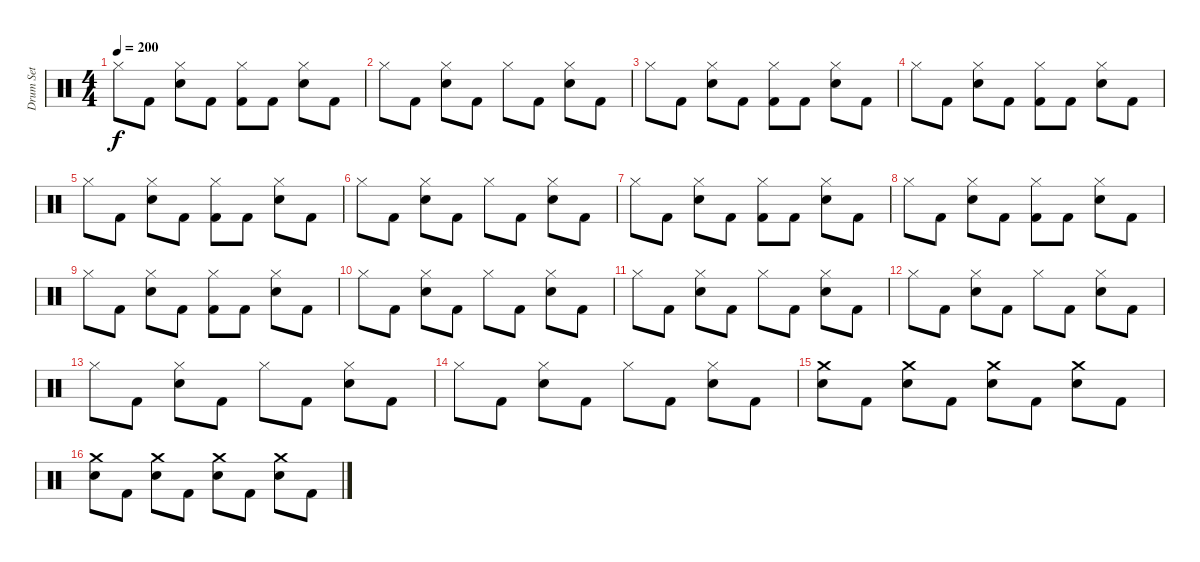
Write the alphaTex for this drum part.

\track ("Drum Set" "Drum Set") {instrument percussion}
\staff {score}
\articulation defaults
\ts (4 4)
\tempo 200
\clef neutral
\ks c "Hi-Hat (closed)".8{dy f} "Kick (hit) 2".8
("Hi-Hat (closed)" "Snare (hit) 2").8 "Kick (hit) 2".8 ("Hi-Hat (closed)" "Kick (hit) 2").8 "Kick (hit) 2".8 ("Hi-Hat (closed)" "Snare (hit) 2").8 "Kick (hit) 2".8 |
"Hi-Hat (closed)".8 "Kick (hit) 2".8 ("Hi-Hat (closed)" "Snare (hit) 2").8 "Kick (hit) 2".8 "Hi-Hat (closed)".8 "Kick (hit) 2".8 ("Hi-Hat (closed)" "Snare (hit) 2").8 "Kick (hit) 2".8 |
"Hi-Hat (closed)".8 "Kick (hit) 2".8 ("Hi-Hat (closed)" "Snare (hit) 2").8 "Kick (hit) 2".8 ("Hi-Hat (closed)" "Kick (hit) 2").8 "Kick (hit) 2".8 ("Hi-Hat (closed)" "Snare (hit) 2").8 "Kick (hit) 2".8 |
"Hi-Hat (closed)".8 "Kick (hit) 2".8 ("Hi-Hat (closed)" "Snare (hit) 2").8 "Kick (hit) 2".8 ("Hi-Hat (closed)" "Kick (hit) 2").8 "Kick (hit) 2".8 ("Hi-Hat (closed)" "Snare (hit) 2").8 "Kick (hit) 2".8 |
"Hi-Hat (closed)".8 "Kick (hit) 2".8 ("Hi-Hat (closed)" "Snare (hit) 2").8 "Kick (hit) 2".8 ("Hi-Hat (closed)" "Kick (hit) 2").8 "Kick (hit) 2".8 ("Hi-Hat (closed)" "Snare (hit) 2").8 "Kick (hit) 2".8 |
"Hi-Hat (closed)".8 "Kick (hit) 2".8 ("Hi-Hat (closed)" "Snare (hit) 2").8 "Kick (hit) 2".8 "Hi-Hat (closed)".8 "Kick (hit) 2".8 ("Hi-Hat (closed)" "Snare (hit) 2").8 "Kick (hit) 2".8 |
"Hi-Hat (closed)".8 "Kick (hit) 2".8 ("Hi-Hat (closed)" "Snare (hit) 2").8 "Kick (hit) 2".8 ("Hi-Hat (closed)" "Kick (hit) 2").8 "Kick (hit) 2".8 ("Hi-Hat (closed)" "Snare (hit) 2").8 "Kick (hit) 2".8 |
"Hi-Hat (closed)".8 "Kick (hit) 2".8 ("Hi-Hat (closed)" "Snare (hit) 2").8 "Kick (hit) 2".8 ("Hi-Hat (closed)" "Kick (hit) 2").8 "Kick (hit) 2".8 ("Hi-Hat (closed)" "Snare (hit) 2").8 "Kick (hit) 2".8 |
"Hi-Hat (closed)".8 "Kick (hit) 2".8 ("Hi-Hat (closed)" "Snare (hit) 2").8 "Kick (hit) 2".8 ("Hi-Hat (closed)" "Kick (hit) 2").8 "Kick (hit) 2".8 ("Hi-Hat (closed)" "Snare (hit) 2").8 "Kick (hit) 2".8 |
"Hi-Hat (closed)".8 "Kick (hit) 2".8 ("Hi-Hat (closed)" "Snare (hit) 2").8 "Kick (hit) 2".8 "Hi-Hat (closed)".8 "Kick (hit) 2".8 ("Hi-Hat (closed)" "Snare (hit) 2").8 "Kick (hit) 2".8 |
"Hi-Hat (closed)".8 "Kick (hit) 2".8 ("Hi-Hat (closed)" "Snare (hit) 2").8 "Kick (hit) 2".8 "Hi-Hat (closed)".8 "Kick (hit) 2".8 ("Hi-Hat (closed)" "Snare (hit) 2").8 "Kick (hit) 2".8 |
"Hi-Hat (closed)".8 "Kick (hit) 2".8 ("Hi-Hat (closed)" "Snare (hit) 2").8 "Kick (hit) 2".8 "Hi-Hat (closed)".8 "Kick (hit) 2".8 ("Hi-Hat (closed)" "Snare (hit) 2").8 "Kick (hit) 2".8 |
"Hi-Hat (closed)".8 "Kick (hit) 2".8 ("Hi-Hat (closed)" "Snare (hit) 2").8 "Kick (hit) 2".8 "Hi-Hat (closed)".8 "Kick (hit) 2".8 ("Hi-Hat (closed)" "Snare (hit) 2").8 "Kick (hit) 2".8 |
"Hi-Hat (closed)".8 "Kick (hit) 2".8 ("Hi-Hat (closed)" "Snare (hit) 2").8 "Kick (hit) 2".8 "Hi-Hat (closed)".8 "Kick (hit) 2".8 ("Hi-Hat (closed)" "Snare (hit) 2").8 "Kick (hit) 2".8 |
("Crash medium (hit)" "Snare (hit) 2").8 "Kick (hit) 2".8 ("Crash medium (hit)" "Snare (hit) 2").8 "Kick (hit) 2".8 ("Crash medium (hit)" "Snare (hit) 2").8 "Kick (hit) 2".8 ("Crash medium (hit)" "Snare (hit) 2").8 "Kick (hit) 2".8 |
("Crash medium (hit)" "Snare (hit) 2").8 "Kick (hit) 2".8 ("Crash medium (hit)" "Snare (hit) 2").8 "Kick (hit) 2".8 ("Crash medium (hit)" "Snare (hit) 2").8 "Kick (hit) 2".8 ("Crash medium (hit)" "Snare (hit) 2").8 "Kick (hit) 2".8
